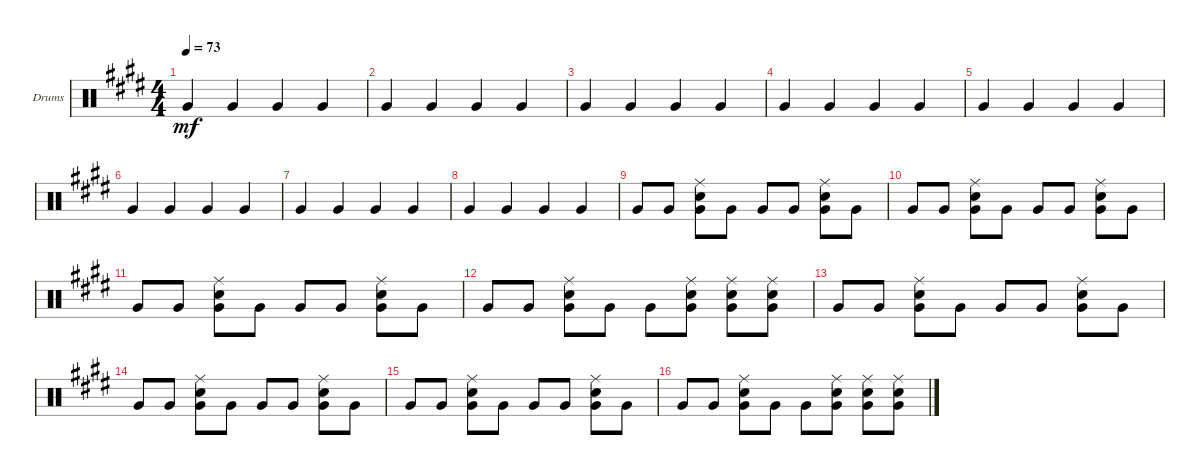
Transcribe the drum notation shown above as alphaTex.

\defaultSystemsLayout 4
\bracketExtendMode groupsimilarinstruments
\firstSystemTrackNameOrientation horizontal
\otherSystemsTrackNameOrientation horizontal
\track ("Drumkit" "Drums") {instrument percussion}
\staff {score}
\articulation defaults
\ts (4 4)
\tempo 73
\clef neutral
\scale
0.47907
\ks e "Very Low Tom (hit)".4{dy mf} "Very Low Tom (hit)".4 "Very Low Tom (hit)".4 "Very Low Tom (hit)".4
|
\scale
0.260465 "Very Low Tom (hit)".4 "Very Low Tom (hit)".4 "Very Low Tom (hit)".4 "Very Low Tom (hit)".4 |
\scale
0.260465 "Very Low Tom (hit)".4 "Very Low Tom (hit)".4 "Very Low Tom (hit)".4 "Very Low Tom (hit)".4 |
\scale
0.333333 "Very Low Tom (hit)".4 "Very Low Tom (hit)".4 "Very Low Tom (hit)".4 "Very Low Tom (hit)".4 |
\scale
0.333333 "Very Low Tom (hit)".4 "Very Low Tom (hit)".4 "Very Low Tom (hit)".4 "Very Low Tom (hit)".4 |
\scale
0.333333 "Very Low Tom (hit)".4 "Very Low Tom (hit)".4 "Very Low Tom (hit)".4 "Very Low Tom (hit)".4 |
\scale
0.333333 "Very Low Tom (hit)".4 "Very Low Tom (hit)".4 "Very Low Tom (hit)".4 "Very Low Tom (hit)".4 |
\scale
0.333333 "Very Low Tom (hit)".4 "Very Low Tom (hit)".4 "Very Low Tom (hit)".4 "Very Low Tom (hit)".4 |
\scale
0.333333 "Very Low Tom (hit)".8 "Very Low Tom (hit)".8 ("Very Low Tom (hit)" "Snare (hit) 2" "Ride (middle)").8 "Very Low Tom (hit)".8 "Very Low Tom (hit)".8 "Very Low Tom (hit)".8 ("Very Low Tom (hit)" "Snare (hit) 2" "Ride (middle)").8 "Very Low Tom (hit)".8 |
"Very Low Tom (hit)".8 "Very Low Tom (hit)".8 ("Very Low Tom (hit)" "Snare (hit) 2" "Ride (middle)").8 "Very Low Tom (hit)".8 "Very Low Tom (hit)".8 "Very Low Tom (hit)".8 ("Very Low Tom (hit)" "Snare (hit) 2" "Ride (middle)").8 "Very Low Tom (hit)".8 |
"Very Low Tom (hit)".8 "Very Low Tom (hit)".8 ("Very Low Tom (hit)" "Snare (hit) 2" "Ride (middle)").8 "Very Low Tom (hit)".8 "Very Low Tom (hit)".8 "Very Low Tom (hit)".8 ("Very Low Tom (hit)" "Snare (hit) 2" "Ride (middle)").8 "Very Low Tom (hit)".8 |
"Very Low Tom (hit)".8 "Very Low Tom (hit)".8 ("Very Low Tom (hit)" "Snare (hit) 2" "Ride (middle)").8 "Very Low Tom (hit)".8 "Very Low Tom (hit)".8 ("Very Low Tom (hit)" "Snare (hit) 2" "Ride (middle)").8 ("Very Low Tom (hit)" "Snare (hit) 2" "Ride (middle)").8 ("Very Low Tom (hit)" "Snare (hit) 2" "Ride (middle)").8 |
"Very Low Tom (hit)".8 "Very Low Tom (hit)".8 ("Very Low Tom (hit)" "Snare (hit) 2" "Ride (middle)").8 "Very Low Tom (hit)".8 "Very Low Tom (hit)".8 "Very Low Tom (hit)".8 ("Very Low Tom (hit)" "Snare (hit) 2" "Ride (middle)").8 "Very Low Tom (hit)".8 |
"Very Low Tom (hit)".8 "Very Low Tom (hit)".8 ("Very Low Tom (hit)" "Snare (hit) 2" "Ride (middle)").8 "Very Low Tom (hit)".8 "Very Low Tom (hit)".8 "Very Low Tom (hit)".8 ("Very Low Tom (hit)" "Snare (hit) 2" "Ride (middle)").8 "Very Low Tom (hit)".8 |
"Very Low Tom (hit)".8 "Very Low Tom (hit)".8 ("Very Low Tom (hit)" "Snare (hit) 2" "Ride (middle)").8 "Very Low Tom (hit)".8 "Very Low Tom (hit)".8 "Very Low Tom (hit)".8 ("Very Low Tom (hit)" "Snare (hit) 2" "Ride (middle)").8 "Very Low Tom (hit)".8 |
"Very Low Tom (hit)".8 "Very Low Tom (hit)".8 ("Very Low Tom (hit)" "Snare (hit) 2" "Ride (middle)").8 "Very Low Tom (hit)".8 "Very Low Tom (hit)".8 ("Very Low Tom (hit)" "Snare (hit) 2" "Ride (middle)").8 ("Very Low Tom (hit)" "Snare (hit) 2" "Ride (middle)").8 ("Very Low Tom (hit)" "Snare (hit) 2" "Ride (middle)").8
